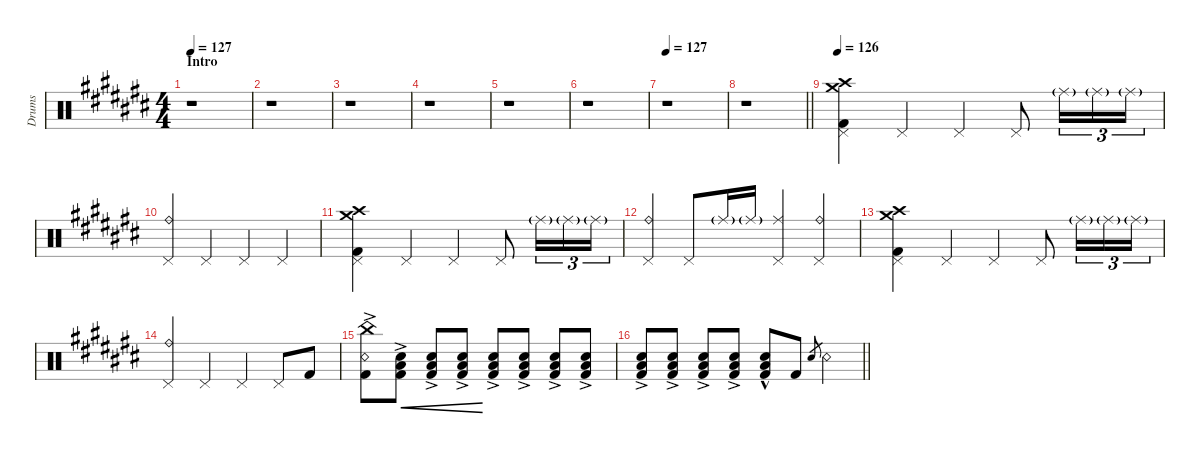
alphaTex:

\hideDynamics
\bracketExtendMode nobrackets
\otherSystemsTrackNameOrientation horizontal
\track ("Drumkit" "Drums") {defaultSystemsLayout 4 instrument percussion}
\staff {score}
\articulation defaults
\ts (4 4)
\section ("" "Intro")
\tempo 127
\clef neutral
\ks c#
r.1{dy ff beam Down} |
r.1{beam Down} |
r.1{beam Down} |
r.1{beam Down} |
r.1{beam Down} |
r.1{beam Down} |
\tempo 127
r.1{beam Down} |
\barLineRight lightlight
r.1{beam Down} |
\tempo 126
("Crash medium (hit)"{acc forcenatural} "Pedal Hi-Hat (hit)"{acc forcenatural} "Kick (hit) 2"{acc forcenatural} "Crash high (hit)"{acc forcenatural}).4{beam Down} "Pedal Hi-Hat (hit)"{acc forcenatural}.4{beam Up} "Pedal Hi-Hat (hit)"{acc forcenatural}.4{beam Up} "Pedal Hi-Hat (hit)"{acc forcenatural}.8{beam Up} "Ride (middle)"{g acc forcenatural}.16{tu (3 2) beam Down} "Ride (middle)"{g acc forcenatural}.16{tu (3 2) beam Down} "Ride (middle)"{g acc forcenatural}.16{tu (3 2) beam Down} |
("Ride (bell)"{acc forcenatural} "Pedal Hi-Hat (hit)"{acc forcenatural}).4{beam Up} "Pedal Hi-Hat (hit)"{acc forcenatural}.4{beam Up} "Pedal Hi-Hat (hit)"{acc forcenatural}.4{beam Up} "Pedal Hi-Hat (hit)"{acc forcenatural}.4{beam Up} |
("Crash medium (hit)"{acc forcenatural} "Pedal Hi-Hat (hit)"{acc forcenatural} "Kick (hit) 2"{acc forcenatural} "Crash high (hit)"{acc forcenatural}).4{beam Down} "Pedal Hi-Hat (hit)"{acc forcenatural}.4{beam Up} "Pedal Hi-Hat (hit)"{acc forcenatural}.4{beam Up} "Pedal Hi-Hat (hit)"{acc forcenatural}.8{beam Up} "Ride (middle)"{g acc forcenatural}.16{tu (3 2) beam Down} "Ride (middle)"{g acc forcenatural}.16{tu (3 2) beam Down} "Ride (middle)"{g acc forcenatural}.16{tu (3 2) beam Down} |
("Ride (bell)"{acc forcenatural} "Pedal Hi-Hat (hit)"{acc forcenatural}).4{beam Up} "Pedal Hi-Hat (hit)"{acc forcenatural}.8{beam Up} "Ride (middle)"{g acc forcenatural}.16{beam Up} "Ride (middle)"{g acc forcenatural}.16{beam Up} ("Pedal Hi-Hat (hit)"{acc forcenatural} "Ride (middle)"{acc forcenatural}).4{beam Up} ("Pedal Hi-Hat (hit)"{acc forcenatural} "Ride (bell)"{acc forcenatural}).4{beam Up} |
("Crash medium (hit)"{acc forcenatural} "Pedal Hi-Hat (hit)"{acc forcenatural} "Kick (hit) 2"{acc forcenatural} "Crash high (hit)"{acc forcenatural}).4{beam Down} "Pedal Hi-Hat (hit)"{acc forcenatural}.4{beam Up} "Pedal Hi-Hat (hit)"{acc forcenatural}.4{beam Up} "Pedal Hi-Hat (hit)"{acc forcenatural}.8{beam Up} "Ride (middle)"{g acc forcenatural}.16{tu (3 2) beam Down} "Ride (middle)"{g acc forcenatural}.16{tu (3 2) beam Down} "Ride (middle)"{g acc forcenatural}.16{tu (3 2) beam Down} |
("Ride (bell)"{acc forcenatural} "Pedal Hi-Hat (hit)"{acc forcenatural}).4{beam Up} "Pedal Hi-Hat (hit)"{acc forcenatural}.4{beam Up} "Pedal Hi-Hat (hit)"{acc forcenatural}.4{beam Up} "Pedal Hi-Hat (hit)"{acc forcenatural}.8{beam Up} "Kick (hit) 2"{acc forcenatural}.8{beam Up} |
("Snare (rim shot)"{ac acc forcenatural} "China (hit)"{acc forcenatural} "Kick (hit) 2"{acc forcenatural}).8{beam Down} ("Low Tom (hit)"{ac acc forcenatural} "Snare (hit) 2"{acc forcenatural} "Kick (hit) 2"{acc forcenatural}).8{cre dy pp beam Down} ("Low Tom (hit)"{ac acc forcenatural} "Snare (hit) 2"{acc forcenatural} "Kick (hit) 2"{acc forcenatural}).8{cre beam Up} ("Low Tom (hit)"{ac acc forcenatural} "Snare (hit) 2"{acc forcenatural} "Kick (hit) 2"{acc forcenatural}).8{cre beam Up} ("Low Tom (hit)"{ac acc forcenatural} "Snare (hit) 2"{acc forcenatural} "Kick (hit) 2"{acc forcenatural}).8{dy p beam Up} ("Low Tom (hit)"{ac acc forcenatural} "Snare (hit) 2"{acc forcenatural} "Kick (hit) 2"{acc forcenatural}).8{beam Up} ("Low Tom (hit)"{ac acc forcenatural} "Snare (hit) 2"{acc forcenatural} "Kick (hit) 2"{acc forcenatural}).8{dy mp beam Up} ("Low Tom (hit)"{ac acc forcenatural} "Snare (hit) 2"{acc forcenatural} "Kick (hit) 2"{acc forcenatural}).8{beam Up} |
\barLineRight lightlight
("Low Tom (hit)"{ac acc forcenatural} "Snare (hit) 2"{acc forcenatural} "Kick (hit) 2"{acc forcenatural}).8{dy mf beam Up} ("Low Tom (hit)"{ac acc forcenatural} "Snare (hit) 2"{acc forcenatural} "Kick (hit) 2"{acc forcenatural}).8{beam Up} ("Low Tom (hit)"{ac acc forcenatural} "Snare (hit) 2"{acc forcenatural} "Kick (hit) 2"{acc forcenatural}).8{dy f beam Up} ("Low Tom (hit)"{ac acc forcenatural} "Snare (hit) 2"{acc forcenatural} "Kick (hit) 2"{acc forcenatural}).8{beam Up} ("Low Tom (hit)"{hac acc forcenatural} "Snare (hit) 2"{acc forcenatural} "Kick (hit) 2"{acc forcenatural}).8{dy ff beam Up} "Kick (hit) 2"{acc forcenatural}.8{beam Up} "Snare (hit) 2"{acc forcenatural}.8{gr beam Up} "Snare (rim shot)"{acc forcenatural}.4{beam Down}
